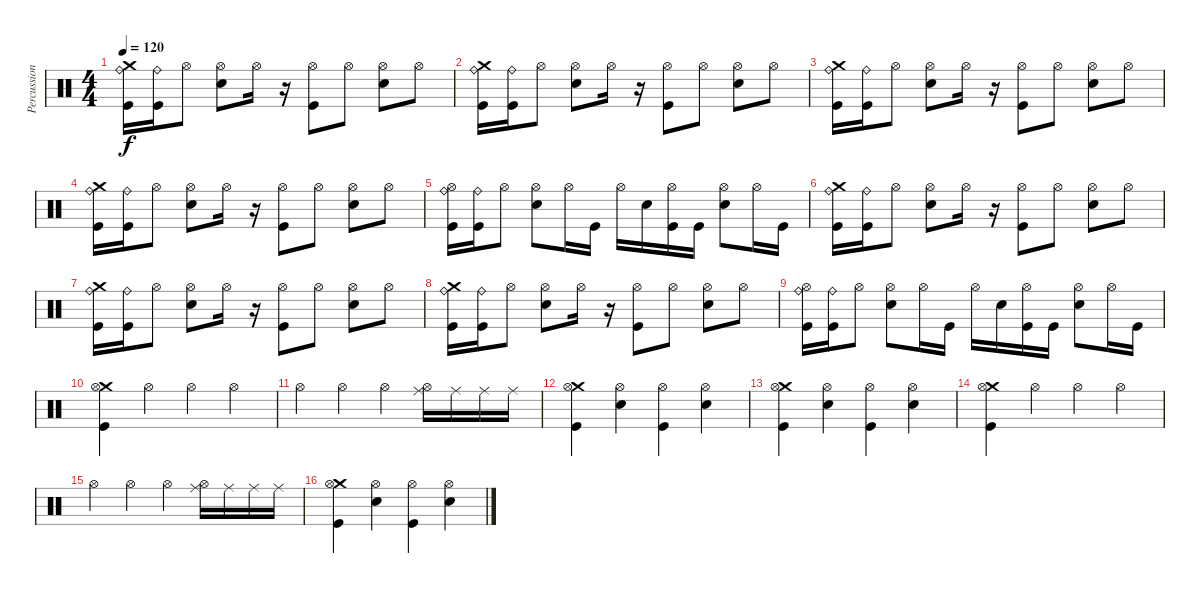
\track ("Percussion" "Percussion") {instrument percussion}
\staff {score}
\articulation defaults
\ts (4 4)
\tempo 120
\clef neutral
\ks c
("Kick (hit)" "Ride (bell)" "Crash medium (hit)").16{dy f} ("Kick (hit)" "Ride (bell)").16 "Hi-Hat (open)".8 ("Hi-Hat (open)" "Electric Snare (hit)").8 "Hi-Hat (open)".16 r.16 ("Kick (hit)" "Hi-Hat (open)").8 "Hi-Hat (open)".8 ("Hi-Hat (open)" "Electric Snare (hit)").8 "Hi-Hat (open)".8 |
("Kick (hit)" "Ride (bell)" "Crash medium (hit)").16 ("Kick (hit)" "Ride (bell)").16 "Hi-Hat (open)".8 ("Hi-Hat (open)" "Electric Snare (hit)").8 "Hi-Hat (open)".16 r.16 ("Kick (hit)" "Hi-Hat (open)").8 "Hi-Hat (open)".8 ("Hi-Hat (open)" "Electric Snare (hit)").8 "Hi-Hat (open)".8 |
("Kick (hit)" "Ride (bell)" "Crash medium (hit)").16 ("Kick (hit)" "Ride (bell)").16 "Hi-Hat (open)".8 ("Hi-Hat (open)" "Electric Snare (hit)").8 "Hi-Hat (open)".16 r.16 ("Kick (hit)" "Hi-Hat (open)").8 "Hi-Hat (open)".8 ("Hi-Hat (open)" "Electric Snare (hit)").8 "Hi-Hat (open)".8 |
("Kick (hit)" "Ride (bell)" "Crash medium (hit)").16 ("Kick (hit)" "Ride (bell)").16 "Hi-Hat (open)".8 ("Hi-Hat (open)" "Electric Snare (hit)").8 "Hi-Hat (open)".16 r.16 ("Kick (hit)" "Hi-Hat (open)").8 "Hi-Hat (open)".8 ("Hi-Hat (open)" "Electric Snare (hit)").8 "Hi-Hat (open)".8 |
("Kick (hit)" "Ride (bell)" "Hi-Hat (open)").16 ("Kick (hit)" "Ride (bell)").16 "Hi-Hat (open)".8 ("Hi-Hat (open)" "Electric Snare (hit)").8 "Hi-Hat (open)".16 "Kick (hit)".16 "Hi-Hat (open)".16 "Electric Snare (hit)".16 ("Kick (hit)" "Hi-Hat (open)").16 "Kick (hit)".16 ("Hi-Hat (open)" "Electric Snare (hit)").8 "Hi-Hat (open)".16 "Kick (hit)".16 |
("Kick (hit)" "Ride (bell)" "Crash medium (hit)").16 ("Kick (hit)" "Ride (bell)").16 "Hi-Hat (open)".8 ("Hi-Hat (open)" "Electric Snare (hit)").8 "Hi-Hat (open)".16 r.16 ("Kick (hit)" "Hi-Hat (open)").8 "Hi-Hat (open)".8 ("Hi-Hat (open)" "Electric Snare (hit)").8 "Hi-Hat (open)".8 |
("Kick (hit)" "Ride (bell)" "Crash medium (hit)").16 ("Kick (hit)" "Ride (bell)").16 "Hi-Hat (open)".8 ("Hi-Hat (open)" "Electric Snare (hit)").8 "Hi-Hat (open)".16 r.16 ("Kick (hit)" "Hi-Hat (open)").8 "Hi-Hat (open)".8 ("Hi-Hat (open)" "Electric Snare (hit)").8 "Hi-Hat (open)".8 |
("Kick (hit)" "Ride (bell)" "Crash medium (hit)").16 ("Kick (hit)" "Ride (bell)").16 "Hi-Hat (open)".8 ("Hi-Hat (open)" "Electric Snare (hit)").8 "Hi-Hat (open)".16 r.16 ("Kick (hit)" "Hi-Hat (open)").8 "Hi-Hat (open)".8 ("Hi-Hat (open)" "Electric Snare (hit)").8 "Hi-Hat (open)".8 |
("Kick (hit)" "Ride (bell)" "Hi-Hat (open)").16 ("Kick (hit)" "Ride (bell)").16 "Hi-Hat (open)".8 ("Hi-Hat (open)" "Electric Snare (hit)").8 "Hi-Hat (open)".16 "Kick (hit)".16 "Hi-Hat (open)".16 "Electric Snare (hit)".16 ("Kick (hit)" "Hi-Hat (open)").16 "Kick (hit)".16 ("Hi-Hat (open)" "Electric Snare (hit)").8 "Hi-Hat (open)".16 "Kick (hit)".16 |
("Crash medium (hit)" "Hi-Hat (open)" "Kick (hit)").4 "Hi-Hat (open)".4 "Hi-Hat (open)".4 "Hi-Hat (open)".4 |
"Hi-Hat (open)".4 "Hi-Hat (open)".4 "Hi-Hat (open)".4 ("Ride (middle)" "Hi-Hat (open)").16 "Ride (middle)".16 "Ride (middle)".16 "Ride (middle)".16 |
("Crash medium (hit)" "Hi-Hat (open)" "Kick (hit)").4 ("Hi-Hat (open)" "Electric Snare (hit)").4 ("Hi-Hat (open)" "Kick (hit)").4 ("Hi-Hat (open)" "Electric Snare (hit)").4 |
("Crash medium (hit)" "Hi-Hat (open)" "Kick (hit)").4 ("Hi-Hat (open)" "Electric Snare (hit)").4 ("Hi-Hat (open)" "Kick (hit)").4 ("Hi-Hat (open)" "Electric Snare (hit)").4 |
("Crash medium (hit)" "Hi-Hat (open)" "Kick (hit)").4 "Hi-Hat (open)".4 "Hi-Hat (open)".4 "Hi-Hat (open)".4 |
"Hi-Hat (open)".4 "Hi-Hat (open)".4 "Hi-Hat (open)".4 ("Ride (middle)" "Hi-Hat (open)").16 "Ride (middle)".16 "Ride (middle)".16 "Ride (middle)".16 |
("Crash medium (hit)" "Hi-Hat (open)" "Kick (hit)").4 ("Hi-Hat (open)" "Electric Snare (hit)").4 ("Hi-Hat (open)" "Kick (hit)").4 ("Hi-Hat (open)" "Electric Snare (hit)").4
